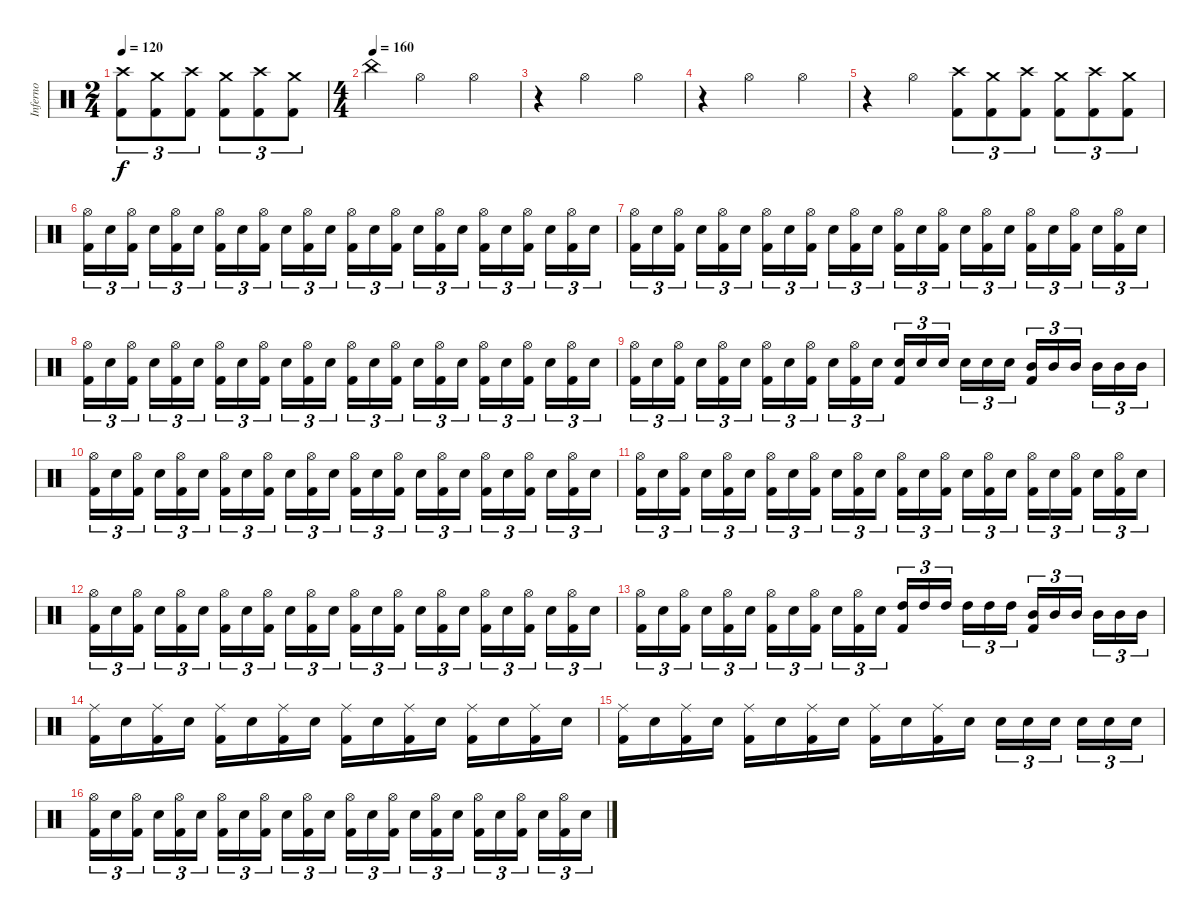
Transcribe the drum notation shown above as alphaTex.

\track ("Inferno" "Inferno") {instrument percussion}
\staff {score}
\articulation defaults
\ts (2 4)
\tempo 120
\tempo 160
\tempo 120
\clef neutral
\ks c
("Crash high (hit)" "Kick (hit) 2").8{tu (3 2) dy f} ("Crash medium (hit)" "Kick (hit) 2").8{tu (3 2)} ("Crash high (hit)" "Kick (hit) 2").8{tu (3 2)} ("Crash medium (hit)" "Kick (hit) 2").8{tu (3 2)} ("Crash high (hit)" "Kick (hit) 2").8{tu (3 2)} ("Crash medium (hit)" "Kick (hit) 2").8{tu (3 2)} |
\ts (4 4)
\tempo (160)
"China (hit)".4 "Hi-Hat (open)".2 "Hi-Hat (open)".4 |
r.4 "Hi-Hat (open)".2 "Hi-Hat (open)".4 |
r.4 "Hi-Hat (open)".2 "Hi-Hat (open)".4 |
r.4 "Hi-Hat (open)".4 ("Crash high (hit)" "Kick (hit) 2").8{tu (3 2)} ("Crash medium (hit)" "Kick (hit) 2").8{tu (3 2)} ("Crash high (hit)" "Kick (hit) 2").8{tu (3 2)} ("Crash medium (hit)" "Kick (hit) 2").8{tu (3 2)} ("Crash high (hit)" "Kick (hit) 2").8{tu (3 2)} ("Crash medium (hit)" "Kick (hit) 2").8{tu (3 2)} |
("Hi-Hat (open)" "Kick (hit) 2").16{tu (3 2)} "Electric Snare (hit)".16{tu (3 2)} ("Hi-Hat (open)" "Kick (hit) 2").16{tu (3 2)} "Electric Snare (hit)".16{tu (3 2)} ("Hi-Hat (open)" "Kick (hit) 2").16{tu (3 2)} "Electric Snare (hit)".16{tu (3 2)} ("Hi-Hat (open)" "Kick (hit) 2").16{tu (3 2)} "Electric Snare (hit)".16{tu (3 2)} ("Hi-Hat (open)" "Kick (hit) 2").16{tu (3 2)} "Electric Snare (hit)".16{tu (3 2)} ("Hi-Hat (open)" "Kick (hit) 2").16{tu (3 2)} "Electric Snare (hit)".16{tu (3 2)} ("Hi-Hat (open)" "Kick (hit) 2").16{tu (3 2)} "Electric Snare (hit)".16{tu (3 2)} ("Hi-Hat (open)" "Kick (hit) 2").16{tu (3 2)} "Electric Snare (hit)".16{tu (3 2)} ("Hi-Hat (open)" "Kick (hit) 2").16{tu (3 2)} "Electric Snare (hit)".16{tu (3 2)} ("Hi-Hat (open)" "Kick (hit) 2").16{tu (3 2)} "Electric Snare (hit)".16{tu (3 2)} ("Hi-Hat (open)" "Kick (hit) 2").16{tu (3 2)} "Electric Snare (hit)".16{tu (3 2)} ("Hi-Hat (open)" "Kick (hit) 2").16{tu (3 2)} "Electric Snare (hit)".16{tu (3 2)} |
("Hi-Hat (open)" "Kick (hit) 2").16{tu (3 2)} "Electric Snare (hit)".16{tu (3 2)} ("Hi-Hat (open)" "Kick (hit) 2").16{tu (3 2)} "Electric Snare (hit)".16{tu (3 2)} ("Hi-Hat (open)" "Kick (hit) 2").16{tu (3 2)} "Electric Snare (hit)".16{tu (3 2)} ("Hi-Hat (open)" "Kick (hit) 2").16{tu (3 2)} "Electric Snare (hit)".16{tu (3 2)} ("Hi-Hat (open)" "Kick (hit) 2").16{tu (3 2)} "Electric Snare (hit)".16{tu (3 2)} ("Hi-Hat (open)" "Kick (hit) 2").16{tu (3 2)} "Electric Snare (hit)".16{tu (3 2)} ("Hi-Hat (open)" "Kick (hit) 2").16{tu (3 2)} "Electric Snare (hit)".16{tu (3 2)} ("Hi-Hat (open)" "Kick (hit) 2").16{tu (3 2)} "Electric Snare (hit)".16{tu (3 2)} ("Hi-Hat (open)" "Kick (hit) 2").16{tu (3 2)} "Electric Snare (hit)".16{tu (3 2)} ("Hi-Hat (open)" "Kick (hit) 2").16{tu (3 2)} "Electric Snare (hit)".16{tu (3 2)} ("Hi-Hat (open)" "Kick (hit) 2").16{tu (3 2)} "Electric Snare (hit)".16{tu (3 2)} ("Hi-Hat (open)" "Kick (hit) 2").16{tu (3 2)} "Electric Snare (hit)".16{tu (3 2)} |
("Hi-Hat (open)" "Kick (hit) 2").16{tu (3 2)} "Electric Snare (hit)".16{tu (3 2)} ("Hi-Hat (open)" "Kick (hit) 2").16{tu (3 2)} "Electric Snare (hit)".16{tu (3 2)} ("Hi-Hat (open)" "Kick (hit) 2").16{tu (3 2)} "Electric Snare (hit)".16{tu (3 2)} ("Hi-Hat (open)" "Kick (hit) 2").16{tu (3 2)} "Electric Snare (hit)".16{tu (3 2)} ("Hi-Hat (open)" "Kick (hit) 2").16{tu (3 2)} "Electric Snare (hit)".16{tu (3 2)} ("Hi-Hat (open)" "Kick (hit) 2").16{tu (3 2)} "Electric Snare (hit)".16{tu (3 2)} ("Hi-Hat (open)" "Kick (hit) 2").16{tu (3 2)} "Electric Snare (hit)".16{tu (3 2)} ("Hi-Hat (open)" "Kick (hit) 2").16{tu (3 2)} "Electric Snare (hit)".16{tu (3 2)} ("Hi-Hat (open)" "Kick (hit) 2").16{tu (3 2)} "Electric Snare (hit)".16{tu (3 2)} ("Hi-Hat (open)" "Kick (hit) 2").16{tu (3 2)} "Electric Snare (hit)".16{tu (3 2)} ("Hi-Hat (open)" "Kick (hit) 2").16{tu (3 2)} "Electric Snare (hit)".16{tu (3 2)} ("Hi-Hat (open)" "Kick (hit) 2").16{tu (3 2)} "Electric Snare (hit)".16{tu (3 2)} |
("Hi-Hat (open)" "Kick (hit) 2").16{tu (3 2)} "Electric Snare (hit)".16{tu (3 2)} ("Hi-Hat (open)" "Kick (hit) 2").16{tu (3 2)} "Electric Snare (hit)".16{tu (3 2)} ("Hi-Hat (open)" "Kick (hit) 2").16{tu (3 2)} "Electric Snare (hit)".16{tu (3 2)} ("Hi-Hat (open)" "Kick (hit) 2").16{tu (3 2)} "Electric Snare (hit)".16{tu (3 2)} ("Hi-Hat (open)" "Kick (hit) 2").16{tu (3 2)} "Electric Snare (hit)".16{tu (3 2)} ("Hi-Hat (open)" "Kick (hit) 2").16{tu (3 2)} "Electric Snare (hit)".16{tu (3 2)} ("Electric Snare (hit)" "Kick (hit) 2").16{tu (3 2)} "Electric Snare (hit)".16{tu (3 2)} "Electric Snare (hit)".16{tu (3 2)} "Electric Snare (hit)".16{tu (3 2)} "Electric Snare (hit)".16{tu (3 2)} "Electric Snare (hit)".16{tu (3 2)} ("Mid Tom (hit)" "Kick (hit) 2").16{tu (3 2)} "Mid Tom (hit)".16{tu (3 2)} "Mid Tom (hit)".16{tu (3 2)} "Mid Tom (hit)".16{tu (3 2)} "Mid Tom (hit)".16{tu (3 2)} "Mid Tom (hit)".16{tu (3 2)} |
("Hi-Hat (open)" "Kick (hit) 2").16{tu (3 2)} "Electric Snare (hit)".16{tu (3 2)} ("Hi-Hat (open)" "Kick (hit) 2").16{tu (3 2)} "Electric Snare (hit)".16{tu (3 2)} ("Hi-Hat (open)" "Kick (hit) 2").16{tu (3 2)} "Electric Snare (hit)".16{tu (3 2)} ("Hi-Hat (open)" "Kick (hit) 2").16{tu (3 2)} "Electric Snare (hit)".16{tu (3 2)} ("Hi-Hat (open)" "Kick (hit) 2").16{tu (3 2)} "Electric Snare (hit)".16{tu (3 2)} ("Hi-Hat (open)" "Kick (hit) 2").16{tu (3 2)} "Electric Snare (hit)".16{tu (3 2)} ("Hi-Hat (open)" "Kick (hit) 2").16{tu (3 2)} "Electric Snare (hit)".16{tu (3 2)} ("Hi-Hat (open)" "Kick (hit) 2").16{tu (3 2)} "Electric Snare (hit)".16{tu (3 2)} ("Hi-Hat (open)" "Kick (hit) 2").16{tu (3 2)} "Electric Snare (hit)".16{tu (3 2)} ("Hi-Hat (open)" "Kick (hit) 2").16{tu (3 2)} "Electric Snare (hit)".16{tu (3 2)} ("Hi-Hat (open)" "Kick (hit) 2").16{tu (3 2)} "Electric Snare (hit)".16{tu (3 2)} ("Hi-Hat (open)" "Kick (hit) 2").16{tu (3 2)} "Electric Snare (hit)".16{tu (3 2)} |
("Hi-Hat (open)" "Kick (hit) 2").16{tu (3 2)} "Electric Snare (hit)".16{tu (3 2)} ("Hi-Hat (open)" "Kick (hit) 2").16{tu (3 2)} "Electric Snare (hit)".16{tu (3 2)} ("Hi-Hat (open)" "Kick (hit) 2").16{tu (3 2)} "Electric Snare (hit)".16{tu (3 2)} ("Hi-Hat (open)" "Kick (hit) 2").16{tu (3 2)} "Electric Snare (hit)".16{tu (3 2)} ("Hi-Hat (open)" "Kick (hit) 2").16{tu (3 2)} "Electric Snare (hit)".16{tu (3 2)} ("Hi-Hat (open)" "Kick (hit) 2").16{tu (3 2)} "Electric Snare (hit)".16{tu (3 2)} ("Hi-Hat (open)" "Kick (hit) 2").16{tu (3 2)} "Electric Snare (hit)".16{tu (3 2)} ("Hi-Hat (open)" "Kick (hit) 2").16{tu (3 2)} "Electric Snare (hit)".16{tu (3 2)} ("Hi-Hat (open)" "Kick (hit) 2").16{tu (3 2)} "Electric Snare (hit)".16{tu (3 2)} ("Hi-Hat (open)" "Kick (hit) 2").16{tu (3 2)} "Electric Snare (hit)".16{tu (3 2)} ("Hi-Hat (open)" "Kick (hit) 2").16{tu (3 2)} "Electric Snare (hit)".16{tu (3 2)} ("Hi-Hat (open)" "Kick (hit) 2").16{tu (3 2)} "Electric Snare (hit)".16{tu (3 2)} |
("Hi-Hat (open)" "Kick (hit) 2").16{tu (3 2)} "Electric Snare (hit)".16{tu (3 2)} ("Hi-Hat (open)" "Kick (hit) 2").16{tu (3 2)} "Electric Snare (hit)".16{tu (3 2)} ("Hi-Hat (open)" "Kick (hit) 2").16{tu (3 2)} "Electric Snare (hit)".16{tu (3 2)} ("Hi-Hat (open)" "Kick (hit) 2").16{tu (3 2)} "Electric Snare (hit)".16{tu (3 2)} ("Hi-Hat (open)" "Kick (hit) 2").16{tu (3 2)} "Electric Snare (hit)".16{tu (3 2)} ("Hi-Hat (open)" "Kick (hit) 2").16{tu (3 2)} "Electric Snare (hit)".16{tu (3 2)} ("Hi-Hat (open)" "Kick (hit) 2").16{tu (3 2)} "Electric Snare (hit)".16{tu (3 2)} ("Hi-Hat (open)" "Kick (hit) 2").16{tu (3 2)} "Electric Snare (hit)".16{tu (3 2)} ("Hi-Hat (open)" "Kick (hit) 2").16{tu (3 2)} "Electric Snare (hit)".16{tu (3 2)} ("Hi-Hat (open)" "Kick (hit) 2").16{tu (3 2)} "Electric Snare (hit)".16{tu (3 2)} ("Hi-Hat (open)" "Kick (hit) 2").16{tu (3 2)} "Electric Snare (hit)".16{tu (3 2)} ("Hi-Hat (open)" "Kick (hit) 2").16{tu (3 2)} "Electric Snare (hit)".16{tu (3 2)} |
("Hi-Hat (open)" "Kick (hit) 2").16{tu (3 2)} "Electric Snare (hit)".16{tu (3 2)} ("Hi-Hat (open)" "Kick (hit) 2").16{tu (3 2)} "Electric Snare (hit)".16{tu (3 2)} ("Hi-Hat (open)" "Kick (hit) 2").16{tu (3 2)} "Electric Snare (hit)".16{tu (3 2)} ("Hi-Hat (open)" "Kick (hit) 2").16{tu (3 2)} "Electric Snare (hit)".16{tu (3 2)} ("Hi-Hat (open)" "Kick (hit) 2").16{tu (3 2)} "Electric Snare (hit)".16{tu (3 2)} ("Hi-Hat (open)" "Kick (hit) 2").16{tu (3 2)} "Electric Snare (hit)".16{tu (3 2)} ("High Tom (hit)" "Kick (hit) 2").16{tu (3 2)} "High Tom (hit)".16{tu (3 2)} "High Tom (hit)".16{tu (3 2)} "High Tom (hit)".16{tu (3 2)} "High Tom (hit)".16{tu (3 2)} "High Tom (hit)".16{tu (3 2)} ("Mid Tom (hit)" "Kick (hit) 2").16{tu (3 2)} "Mid Tom (hit)".16{tu (3 2)} "Mid Tom (hit)".16{tu (3 2)} "Mid Tom (hit)".16{tu (3 2)} "Mid Tom (hit)".16{tu (3 2)} "Mid Tom (hit)".16{tu (3 2)} |
("Ride (middle)" "Kick (hit) 2").16 "Electric Snare (hit)".16 ("Ride (middle)" "Kick (hit) 2").16 "Electric Snare (hit)".16 ("Ride (middle)" "Kick (hit) 2").16 "Electric Snare (hit)".16 ("Ride (middle)" "Kick (hit) 2").16 "Electric Snare (hit)".16 ("Ride (middle)" "Kick (hit) 2").16 "Electric Snare (hit)".16 ("Ride (middle)" "Kick (hit) 2").16 "Electric Snare (hit)".16 ("Ride (middle)" "Kick (hit) 2").16 "Electric Snare (hit)".16 ("Ride (middle)" "Kick (hit) 2").16 "Electric Snare (hit)".16 |
("Ride (middle)" "Kick (hit) 2").16 "Electric Snare (hit)".16 ("Ride (middle)" "Kick (hit) 2").16 "Electric Snare (hit)".16 ("Ride (middle)" "Kick (hit) 2").16 "Electric Snare (hit)".16 ("Ride (middle)" "Kick (hit) 2").16 "Electric Snare (hit)".16 ("Ride (middle)" "Kick (hit) 2").16 "Electric Snare (hit)".16 ("Ride (middle)" "Kick (hit) 2").16 "Electric Snare (hit)".16 "Electric Snare (hit)".16{tu (3 2)} "Electric Snare (hit)".16{tu (3 2)} "Electric Snare (hit)".16{tu (3 2)} "Electric Snare (hit)".16{tu (3 2)} "Electric Snare (hit)".16{tu (3 2)} "Electric Snare (hit)".16{tu (3 2)} |
("Hi-Hat (open)" "Kick (hit) 2").16{tu (3 2)} "Electric Snare (hit)".16{tu (3 2)} ("Hi-Hat (open)" "Kick (hit) 2").16{tu (3 2)} "Electric Snare (hit)".16{tu (3 2)} ("Hi-Hat (open)" "Kick (hit) 2").16{tu (3 2)} "Electric Snare (hit)".16{tu (3 2)} ("Hi-Hat (open)" "Kick (hit) 2").16{tu (3 2)} "Electric Snare (hit)".16{tu (3 2)} ("Hi-Hat (open)" "Kick (hit) 2").16{tu (3 2)} "Electric Snare (hit)".16{tu (3 2)} ("Hi-Hat (open)" "Kick (hit) 2").16{tu (3 2)} "Electric Snare (hit)".16{tu (3 2)} ("Hi-Hat (open)" "Kick (hit) 2").16{tu (3 2)} "Electric Snare (hit)".16{tu (3 2)} ("Hi-Hat (open)" "Kick (hit) 2").16{tu (3 2)} "Electric Snare (hit)".16{tu (3 2)} ("Hi-Hat (open)" "Kick (hit) 2").16{tu (3 2)} "Electric Snare (hit)".16{tu (3 2)} ("Hi-Hat (open)" "Kick (hit) 2").16{tu (3 2)} "Electric Snare (hit)".16{tu (3 2)} ("Hi-Hat (open)" "Kick (hit) 2").16{tu (3 2)} "Electric Snare (hit)".16{tu (3 2)} ("Hi-Hat (open)" "Kick (hit) 2").16{tu (3 2)} "Electric Snare (hit)".16{tu (3 2)}
